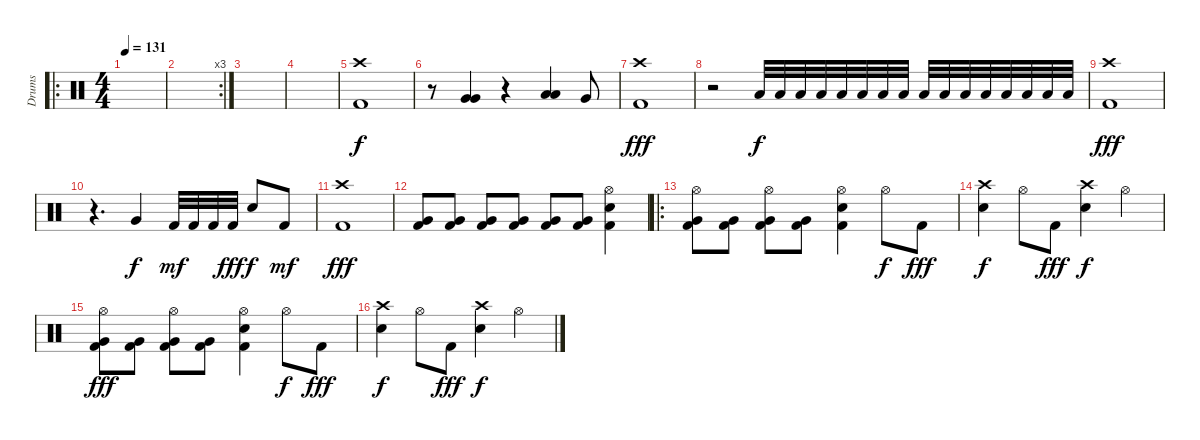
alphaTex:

\track ("Drums" "Drums") {instrument percussion}
\staff {score}
\articulation defaults
\ro
\ts (4 4)
\tempo 131
\clef neutral
\ks c
|
\rc 3
|
|
|
("Crash high (hit)" "Kick (hit) 2").1 |
r.8 ("Very Low Tom (hit)" "Very Low Tom (hit)").4{bd 240 dy f} r.4 ("Low Tom (hit)" "Low Tom (hit)").4{bd 240} "Very Low Tom (hit)".8 |
("Crash high (hit)" "Kick (hit) 2").1{dy fff} |
r.2{volume 0} "Low Tom (hit)".32{dy f volume 14} "Low Tom (hit)".32 "Low Tom (hit)".32 "Low Tom (hit)".32 "Low Tom (hit)".32 "Low Tom (hit)".32 "Low Tom (hit)".32 "Low Tom (hit)".32 "Low Tom (hit)".32 "Low Tom (hit)".32 "Low Tom (hit)".32 "Low Tom (hit)".32 "Low Tom (hit)".32 "Low Tom (hit)".32 "Low Tom (hit)".32 "Low Tom (hit)".32 |
("Crash high (hit)" "Kick (hit) 2").1{dy fff} |
r.4{d} "Very Low Tom (hit)".4{dy f} "Kick (hit) 2".32{dy mf} "Kick (hit) 2".32 "Kick (hit) 2".32 "Kick (hit) 2".32{dy fff} "Snare (hit) 2".8{dy f} "Kick (hit) 2".8{dy mf} |
("Crash high (hit)" "Kick (hit) 2").1{dy fff} |
("Very Low Tom (hit)" "Kick (hit) 2").8{volume 9} ("Very Low Tom (hit)" "Kick (hit) 2").8{volume 16} ("Very Low Tom (hit)" "Kick (hit) 2").8 ("Very Low Tom (hit)" "Kick (hit) 2").8 ("Very Low Tom (hit)" "Kick (hit) 2").8 ("Very Low Tom (hit)" "Kick (hit) 2").8 ("Hi-Hat (open)" "Snare (hit) 2" "Kick (hit) 2").4 |
\ro
("Hi-Hat (open)" "Very Low Tom (hit)" "Kick (hit) 2").8 ("Very Low Tom (hit)" "Kick (hit) 2").8 ("Hi-Hat (open)" "Very Low Tom (hit)" "Kick (hit) 2").8 ("Very Low Tom (hit)" "Kick (hit) 2").8 ("Hi-Hat (open)" "Snare (hit) 2" "Kick (hit) 2").4 "Hi-Hat (open)".8{dy f} "Kick (hit) 2".8{dy fff} |
("Crash high (hit)" "Snare (hit) 2").4{dy f} "Hi-Hat (open)".8 "Kick (hit) 2".8{dy fff} ("Crash high (hit)" "Snare (hit) 2").4{dy f} "Hi-Hat (open)".4 |
("Hi-Hat (open)" "Very Low Tom (hit)" "Kick (hit) 2").8{dy fff} ("Very Low Tom (hit)" "Kick (hit) 2").8 ("Hi-Hat (open)" "Very Low Tom (hit)" "Kick (hit) 2").8 ("Very Low Tom (hit)" "Kick (hit) 2").8 ("Hi-Hat (open)" "Snare (hit) 2" "Kick (hit) 2").4 "Hi-Hat (open)".8{dy f} "Kick (hit) 2".8{dy fff} |
("Crash high (hit)" "Snare (hit) 2").4{dy f} "Hi-Hat (open)".8 "Kick (hit) 2".8{dy fff} ("Crash high (hit)" "Snare (hit) 2").4{dy f} "Hi-Hat (open)".4
